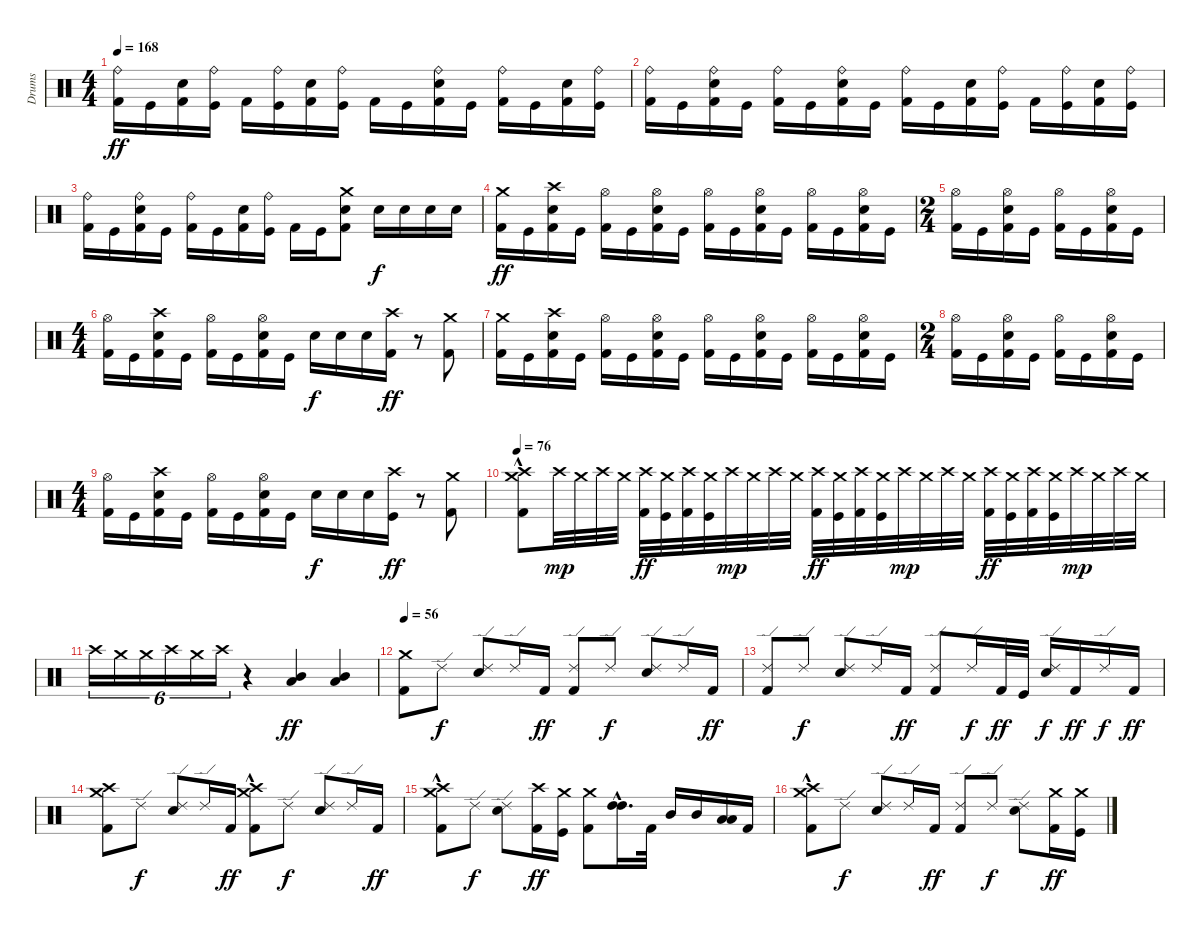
\track ("Drums" "Drums") {instrument percussion}
\staff {score}
\articulation defaults
\ts (4 4)
\tempo 168
\clef neutral
\ks c
("Ride (bell)" "Kick (hit) 2").16{dy ff} "Kick (hit)".16 ("Electric Snare (hit)" "Kick (hit) 2").16 ("Ride (bell)" "Kick (hit)").16 "Kick (hit) 2".16 ("Ride (bell)" "Kick (hit)").16 ("Electric Snare (hit)" "Kick (hit) 2").16 ("Ride (bell)" "Kick (hit)").16 "Kick (hit) 2".16 "Kick (hit)".16 ("Ride (bell)" "Electric Snare (hit)" "Kick (hit) 2").16 "Kick (hit)".16 ("Ride (bell)" "Kick (hit) 2").16 "Kick (hit)".16 ("Electric Snare (hit)" "Kick (hit) 2").16 ("Ride (bell)" "Kick (hit)").16 |
("Ride (bell)" "Kick (hit) 2").16 "Kick (hit)".16 ("Ride (bell)" "Electric Snare (hit)" "Kick (hit) 2").16 "Kick (hit)".16 ("Ride (bell)" "Kick (hit) 2").16 "Kick (hit)".16 ("Ride (bell)" "Electric Snare (hit)" "Kick (hit) 2").16 "Kick (hit)".16 ("Ride (bell)" "Kick (hit) 2").16 "Kick (hit)".16 ("Electric Snare (hit)" "Kick (hit) 2").16 ("Ride (bell)" "Kick (hit)").16 "Kick (hit) 2".16 ("Ride (bell)" "Kick (hit)").16 ("Electric Snare (hit)" "Kick (hit) 2").16 ("Ride (bell)" "Kick (hit)").16 |
("Ride (bell)" "Kick (hit) 2").16 "Kick (hit)".16 ("Ride (bell)" "Electric Snare (hit)" "Kick (hit) 2").16 "Kick (hit)".16 ("Ride (bell)" "Kick (hit) 2").16 "Kick (hit)".16 ("Electric Snare (hit)" "Kick (hit) 2").16 ("Ride (bell)" "Kick (hit)").16 "Kick (hit) 2".16 "Kick (hit)".16 ("Crash medium (hit)" "Electric Snare (hit)" "Kick (hit) 2").8 "Electric Snare (hit)".16{dy f} "Electric Snare (hit)".16 "Electric Snare (hit)".16 "Electric Snare (hit)".16 |
("Crash medium (hit)" "Kick (hit) 2").16{dy ff} "Kick (hit)".16 ("Crash high (hit)" "Electric Snare (hit)" "Kick (hit) 2").16 "Kick (hit)".16 ("Hi-Hat (open)" "Kick (hit) 2").16 "Kick (hit)".16 ("Hi-Hat (open)" "Electric Snare (hit)" "Kick (hit) 2").16 "Kick (hit)".16 ("Hi-Hat (open)" "Kick (hit) 2").16 "Kick (hit)".16 ("Hi-Hat (open)" "Electric Snare (hit)" "Kick (hit) 2").16 "Kick (hit)".16 ("Hi-Hat (open)" "Kick (hit) 2").16 "Kick (hit)".16 ("Hi-Hat (open)" "Electric Snare (hit)" "Kick (hit) 2").16 "Kick (hit)".16 |
\ts (2 4)
("Hi-Hat (open)" "Kick (hit) 2").16 "Kick (hit)".16 ("Hi-Hat (open)" "Electric Snare (hit)" "Kick (hit) 2").16 "Kick (hit)".16 ("Hi-Hat (open)" "Kick (hit) 2").16 "Kick (hit)".16 ("Hi-Hat (open)" "Electric Snare (hit)" "Kick (hit) 2").16 "Kick (hit)".16 |
\ts (4 4)
("Hi-Hat (open)" "Kick (hit) 2").16 "Kick (hit)".16 ("Crash high (hit)" "Electric Snare (hit)" "Kick (hit) 2").16 "Kick (hit)".16 ("Hi-Hat (open)" "Kick (hit) 2").16 "Kick (hit)".16 ("Hi-Hat (open)" "Electric Snare (hit)" "Kick (hit) 2").16 "Kick (hit)".16 "Electric Snare (hit)".16{dy f} "Electric Snare (hit)".16 "Electric Snare (hit)".16 ("Crash high (hit)" "Kick (hit) 2").16{dy ff} r.8 ("Crash medium (hit)" "Kick (hit) 2").8 |
("Crash medium (hit)" "Kick (hit) 2").16 "Kick (hit)".16 ("Crash high (hit)" "Electric Snare (hit)" "Kick (hit) 2").16 "Kick (hit)".16 ("Hi-Hat (open)" "Kick (hit) 2").16 "Kick (hit)".16 ("Hi-Hat (open)" "Electric Snare (hit)" "Kick (hit) 2").16 "Kick (hit)".16 ("Hi-Hat (open)" "Kick (hit) 2").16 "Kick (hit)".16 ("Hi-Hat (open)" "Electric Snare (hit)" "Kick (hit) 2").16 "Kick (hit)".16 ("Hi-Hat (open)" "Kick (hit) 2").16 "Kick (hit)".16 ("Hi-Hat (open)" "Electric Snare (hit)" "Kick (hit) 2").16 "Kick (hit)".16 |
\ts (2 4)
("Hi-Hat (open)" "Kick (hit) 2").16 "Kick (hit)".16 ("Hi-Hat (open)" "Electric Snare (hit)" "Kick (hit) 2").16 "Kick (hit)".16 ("Hi-Hat (open)" "Kick (hit) 2").16 "Kick (hit)".16 ("Hi-Hat (open)" "Electric Snare (hit)" "Kick (hit) 2").16 "Kick (hit)".16 |
\ts (4 4)
("Hi-Hat (open)" "Kick (hit) 2").16 "Kick (hit)".16 ("Crash high (hit)" "Electric Snare (hit)" "Kick (hit) 2").16 "Kick (hit)".16 ("Hi-Hat (open)" "Kick (hit) 2").16 "Kick (hit)".16 ("Hi-Hat (open)" "Electric Snare (hit)" "Kick (hit) 2").16 "Kick (hit)".16 "Electric Snare (hit)".16{dy f} "Electric Snare (hit)".16 "Electric Snare (hit)".16 ("Crash high (hit)" "Kick (hit)").16{dy ff} r.8 ("Crash medium (hit)" "Kick (hit) 2").8 |
\tempo 76
("Crash high (hit)"{hac} "Crash medium (hit)" "Kick (hit) 2").8 "Crash high (hit)".32{dy mp} "Crash medium (hit)".32 "Crash high (hit)".32 "Crash medium (hit)".32 ("Crash high (hit)" "Kick (hit) 2").32{dy ff} ("Crash medium (hit)" "Kick (hit)").32 ("Crash high (hit)" "Kick (hit) 2").32 ("Crash medium (hit)" "Kick (hit)").32 "Crash high (hit)".32{dy mp} "Crash medium (hit)".32 "Crash high (hit)".32 "Crash medium (hit)".32 ("Crash high (hit)" "Kick (hit) 2").32{dy ff} ("Crash medium (hit)" "Kick (hit)").32 ("Crash high (hit)" "Kick (hit) 2").32 ("Crash medium (hit)" "Kick (hit)").32 "Crash high (hit)".32{dy mp} "Crash medium (hit)".32 "Crash high (hit)".32 "Crash medium (hit)".32 ("Crash high (hit)" "Kick (hit) 2").32{dy ff} ("Crash medium (hit)" "Kick (hit)").32 ("Crash high (hit)" "Kick (hit) 2").32 ("Crash medium (hit)" "Kick (hit)").32 "Crash high (hit)".32{dy mp} "Crash medium (hit)".32 "Crash high (hit)".32 "Crash medium (hit)".32 |
"Crash high (hit)".16{tu (6 4)} "Crash medium (hit)".16{tu (6 4)} "Crash medium (hit)".16{tu (6 4)} "Crash high (hit)".16{tu (6 4)} "Crash medium (hit)".16{tu (6 4)} "Crash high (hit)".16{tu (6 4)} r.4 ("Low Tom (hit)" "Mid Tom (hit)").4{dy ff} ("Low Tom (hit)" "Mid Tom (hit)").4 |
\tempo 56
("Crash medium (hit)" "Kick (hit) 2").8 "Ride (edge) 2".8{dy f} ("Ride (edge) 2" "Electric Snare (hit)").8 "Ride (edge) 2".16 "Kick (hit) 2".16{dy ff} ("Ride (edge) 2" "Kick (hit) 2").8 "Ride (edge) 2".8{dy f} ("Ride (edge) 2" "Electric Snare (hit)").8 "Ride (edge) 2".16 "Kick (hit) 2".16{dy ff} |
("Ride (edge) 2" "Kick (hit) 2").8 "Ride (edge) 2".8{dy f} ("Ride (edge) 2" "Electric Snare (hit)").8 "Ride (edge) 2".16 "Kick (hit) 2".16{dy ff} ("Ride (edge) 2" "Kick (hit) 2").8 "Ride (edge) 2".16{dy f} "Kick (hit) 2".32{dy ff} "Kick (hit)".32 ("Ride (edge) 2" "Electric Snare (hit)").16{dy f} "Kick (hit) 2".16{dy ff} "Ride (edge) 2".16{dy f} "Kick (hit) 2".16{dy ff} |
("Crash high (hit)" "Crash medium (hit)" "Kick (hit) 2").8 "Ride (edge) 2".8{dy f} ("Ride (edge) 2" "Electric Snare (hit)").8 "Ride (edge) 2".16 "Kick (hit) 2".16{dy ff} ("Crash high (hit)"{hac} "Crash medium (hit)" "Kick (hit) 2").8 "Ride (edge) 2".8{dy f} ("Ride (edge) 2" "Electric Snare (hit)").8 "Ride (edge) 2".16 "Kick (hit) 2".16{dy ff} |
("Crash high (hit)"{hac} "Crash medium (hit)" "Kick (hit) 2").8 "Ride (edge) 2".8{dy f} ("Ride (edge) 2" "Electric Snare (hit)").8 ("Crash high (hit)" "Kick (hit) 2").16{dy ff} ("Crash medium (hit)" "Kick (hit)").16 ("Crash medium (hit)" "Kick (hit) 2").8 ("High Tom (hit)"{hac} "High Tom (hit)"{hac}).16{d} "Kick (hit) 2".32 "Mid Tom (hit)".16 "Mid Tom (hit)".16 ("Low Tom (hit)" "Low Tom (hit)").16 "Kick (hit) 2".16 |
("Crash high (hit)"{hac} "Crash medium (hit)" "Kick (hit) 2").8 "Ride (edge) 2".8{dy f} ("Ride (edge) 2" "Electric Snare (hit)").8 "Ride (edge) 2".16 "Kick (hit) 2".16{dy ff} ("Ride (edge) 2" "Kick (hit) 2").8 "Ride (edge) 2".8{dy f} ("Ride (edge) 2" "Electric Snare (hit)").8 ("Crash medium (hit)" "Kick (hit) 2").16{dy ff} ("Crash medium (hit)" "Kick (hit)").16
